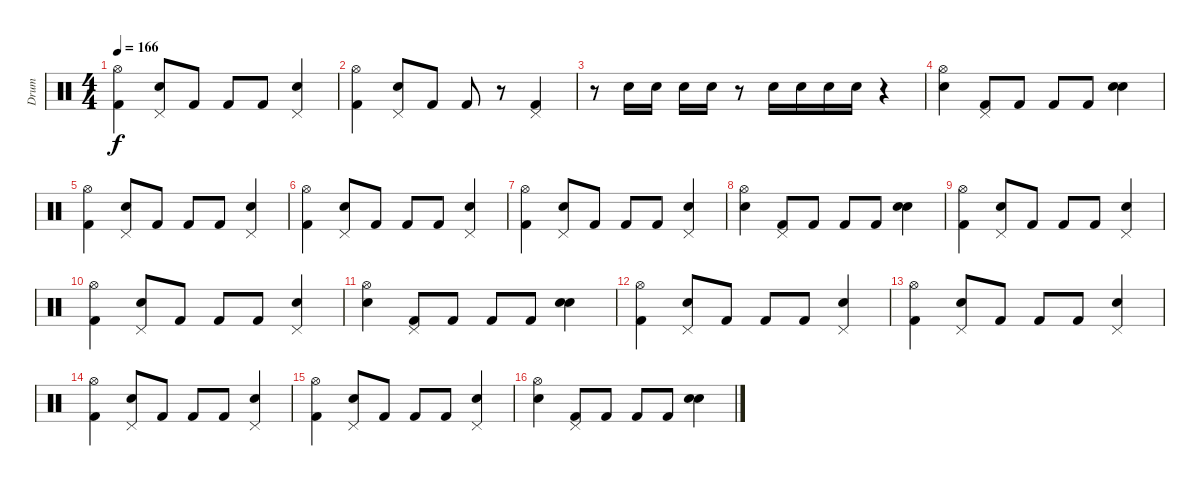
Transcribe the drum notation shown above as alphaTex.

\track ("Drum" "Drum") {instrument percussion}
\staff {score}
\articulation defaults
\ts (4 4)
\tempo 166
\clef neutral
\ks c
("Kick (hit) 2" "Hi-Hat (open)").4{dy f} ("Electric Snare (hit)" "Pedal Hi-Hat (hit)").8 "Kick (hit) 2".8 "Kick (hit) 2".8 "Kick (hit) 2".8 ("Electric Snare (hit)" "Pedal Hi-Hat (hit)").4 |
("Kick (hit) 2" "Hi-Hat (open)").4 ("Electric Snare (hit)" "Pedal Hi-Hat (hit)").8 "Kick (hit) 2".8 "Kick (hit) 2".8 r.8 ("Kick (hit) 2" "Pedal Hi-Hat (hit)").4 |
r.8 "Electric Snare (hit)".16 "Electric Snare (hit)".16 "Electric Snare (hit)".16 "Electric Snare (hit)".16 r.8 "Electric Snare (hit)".16 "Electric Snare (hit)".16 "Electric Snare (hit)".16 "Electric Snare (hit)".16 r.4 |
("Snare (hit) 2" "Hi-Hat (open)").4 ("Kick (hit) 2" "Pedal Hi-Hat (hit)").8 "Kick (hit) 2".8 "Kick (hit) 2".8 "Kick (hit) 2".8 ("Electric Snare (hit)" "Snare (hit) 2").4 |
("Kick (hit) 2" "Hi-Hat (open)").4 ("Electric Snare (hit)" "Pedal Hi-Hat (hit)").8 "Kick (hit) 2".8 "Kick (hit) 2".8 "Kick (hit) 2".8 ("Electric Snare (hit)" "Pedal Hi-Hat (hit)").4 |
("Kick (hit) 2" "Hi-Hat (open)").4 ("Electric Snare (hit)" "Pedal Hi-Hat (hit)").8 "Kick (hit) 2".8 "Kick (hit) 2".8 "Kick (hit) 2".8 ("Electric Snare (hit)" "Pedal Hi-Hat (hit)").4 |
("Kick (hit) 2" "Hi-Hat (open)").4 ("Electric Snare (hit)" "Pedal Hi-Hat (hit)").8 "Kick (hit) 2".8 "Kick (hit) 2".8 "Kick (hit) 2".8 ("Electric Snare (hit)" "Pedal Hi-Hat (hit)").4 |
("Snare (hit) 2" "Hi-Hat (open)").4 ("Kick (hit) 2" "Pedal Hi-Hat (hit)").8 "Kick (hit) 2".8 "Kick (hit) 2".8 "Kick (hit) 2".8 ("Electric Snare (hit)" "Snare (hit) 2").4 |
("Kick (hit) 2" "Hi-Hat (open)").4 ("Electric Snare (hit)" "Pedal Hi-Hat (hit)").8 "Kick (hit) 2".8 "Kick (hit) 2".8 "Kick (hit) 2".8 ("Electric Snare (hit)" "Pedal Hi-Hat (hit)").4 |
("Kick (hit) 2" "Hi-Hat (open)").4 ("Electric Snare (hit)" "Pedal Hi-Hat (hit)").8 "Kick (hit) 2".8 "Kick (hit) 2".8 "Kick (hit) 2".8 ("Electric Snare (hit)" "Pedal Hi-Hat (hit)").4 |
("Snare (hit) 2" "Hi-Hat (open)").4 ("Kick (hit) 2" "Pedal Hi-Hat (hit)").8 "Kick (hit) 2".8 "Kick (hit) 2".8 "Kick (hit) 2".8 ("Electric Snare (hit)" "Snare (hit) 2").4 |
("Kick (hit) 2" "Hi-Hat (open)").4 ("Electric Snare (hit)" "Pedal Hi-Hat (hit)").8 "Kick (hit) 2".8 "Kick (hit) 2".8 "Kick (hit) 2".8 ("Electric Snare (hit)" "Pedal Hi-Hat (hit)").4 |
("Kick (hit) 2" "Hi-Hat (open)").4 ("Electric Snare (hit)" "Pedal Hi-Hat (hit)").8 "Kick (hit) 2".8 "Kick (hit) 2".8 "Kick (hit) 2".8 ("Electric Snare (hit)" "Pedal Hi-Hat (hit)").4 |
("Kick (hit) 2" "Hi-Hat (open)").4 ("Electric Snare (hit)" "Pedal Hi-Hat (hit)").8 "Kick (hit) 2".8 "Kick (hit) 2".8 "Kick (hit) 2".8 ("Electric Snare (hit)" "Pedal Hi-Hat (hit)").4 |
("Kick (hit) 2" "Hi-Hat (open)").4 ("Electric Snare (hit)" "Pedal Hi-Hat (hit)").8 "Kick (hit) 2".8 "Kick (hit) 2".8 "Kick (hit) 2".8 ("Electric Snare (hit)" "Pedal Hi-Hat (hit)").4 |
("Snare (hit) 2" "Hi-Hat (open)").4 ("Kick (hit) 2" "Pedal Hi-Hat (hit)").8 "Kick (hit) 2".8 "Kick (hit) 2".8 "Kick (hit) 2".8 ("Electric Snare (hit)" "Snare (hit) 2").4
